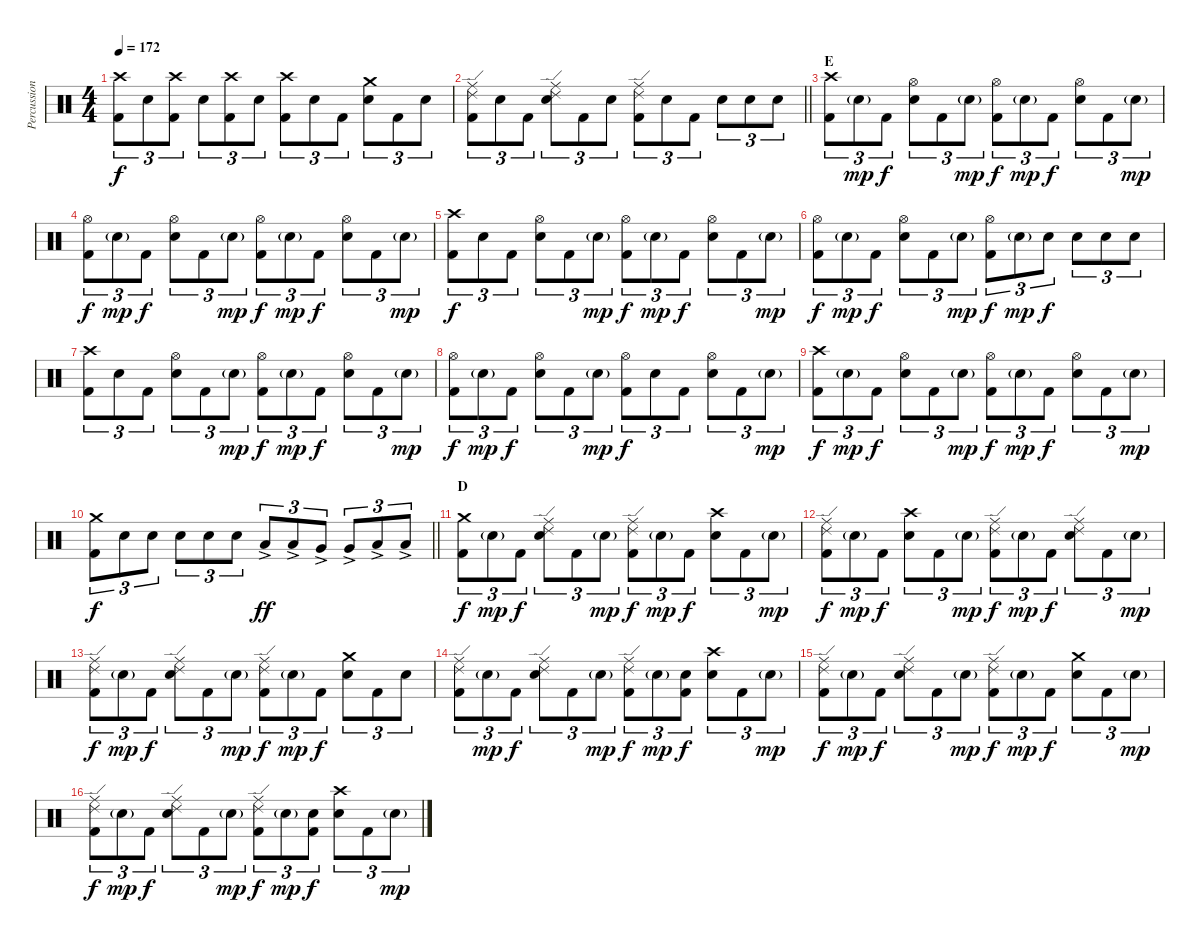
\track ("Percussion" "Percussion") {instrument percussion}
\staff {score}
\articulation defaults
\ts (4 4)
\tempo 172
\clef neutral
\ks c
("Crash high (hit)" "Kick (hit) 2").8{tu (3 2) dy f} "Electric Snare (hit)".8{tu (3 2)} ("Crash high (hit)" "Kick (hit) 2").8{tu (3 2)} "Electric Snare (hit)".8{tu (3 2)} ("Crash high (hit)" "Kick (hit) 2").8{tu (3 2)} "Electric Snare (hit)".8{tu (3 2)} ("Crash high (hit)" "Kick (hit) 2").8{tu (3 2)} "Electric Snare (hit)".8{tu (3 2)} "Kick (hit) 2".8{tu (3 2)} ("Crash medium (hit)" "Electric Snare (hit)").8{tu (3 2)} "Kick (hit) 2".8{tu (3 2)} "Electric Snare (hit)".8{tu (3 2)} |
\barLineRight lightlight
("Ride (edge) 2" "Ride (middle)" "Kick (hit) 2").8{tu (3 2)} "Electric Snare (hit)".8{tu (3 2)} "Kick (hit) 2".8{tu (3 2)} ("Ride (edge) 2" "Ride (middle)" "Electric Snare (hit)").8{tu (3 2)} "Kick (hit) 2".8{tu (3 2)} "Electric Snare (hit)".8{tu (3 2)} ("Ride (edge) 2" "Ride (middle)" "Kick (hit) 2").8{tu (3 2)} "Electric Snare (hit)".8{tu (3 2)} "Kick (hit) 2".8{tu (3 2)} "Electric Snare (hit)".8{tu (3 2)} "Electric Snare (hit)".8{tu (3 2)} "Electric Snare (hit)".8{tu (3 2)} |
\section ("" "E")
("Crash high (hit)" "Kick (hit) 2").8{tu (3 2)} "Electric Snare (hit)"{g}.8{tu (3 2) dy mp} "Kick (hit) 2".8{tu (3 2) dy f} ("Hi-Hat (open)" "Electric Snare (hit)").8{tu (3 2)} "Kick (hit) 2".8{tu (3 2)} "Electric Snare (hit)"{g}.8{tu (3 2) dy mp} ("Hi-Hat (open)" "Kick (hit) 2").8{tu (3 2) dy f} "Electric Snare (hit)"{g}.8{tu (3 2) dy mp} "Kick (hit) 2".8{tu (3 2) dy f} ("Hi-Hat (open)" "Electric Snare (hit)").8{tu (3 2)} "Kick (hit) 2".8{tu (3 2)} "Electric Snare (hit)"{g}.8{tu (3 2) dy mp} |
("Hi-Hat (open)" "Kick (hit) 2").8{tu (3 2) dy f} "Electric Snare (hit)"{g}.8{tu (3 2) dy mp} "Kick (hit) 2".8{tu (3 2) dy f} ("Hi-Hat (open)" "Electric Snare (hit)").8{tu (3 2)} "Kick (hit) 2".8{tu (3 2)} "Electric Snare (hit)"{g}.8{tu (3 2) dy mp} ("Hi-Hat (open)" "Kick (hit) 2").8{tu (3 2) dy f} "Electric Snare (hit)"{g}.8{tu (3 2) dy mp} "Kick (hit) 2".8{tu (3 2) dy f} ("Hi-Hat (open)" "Electric Snare (hit)").8{tu (3 2)} "Kick (hit) 2".8{tu (3 2)} "Electric Snare (hit)"{g}.8{tu (3 2) dy mp} |
("Crash high (hit)" "Kick (hit) 2").8{tu (3 2) dy f} "Electric Snare (hit)".8{tu (3 2)} "Kick (hit) 2".8{tu (3 2)} ("Hi-Hat (open)" "Electric Snare (hit)").8{tu (3 2)} "Kick (hit) 2".8{tu (3 2)} "Electric Snare (hit)"{g}.8{tu (3 2) dy mp} ("Hi-Hat (open)" "Kick (hit) 2").8{tu (3 2) dy f} "Electric Snare (hit)"{g}.8{tu (3 2) dy mp} "Kick (hit) 2".8{tu (3 2) dy f} ("Hi-Hat (open)" "Electric Snare (hit)").8{tu (3 2)} "Kick (hit) 2".8{tu (3 2)} "Electric Snare (hit)"{g}.8{tu (3 2) dy mp} |
("Hi-Hat (open)" "Kick (hit) 2").8{tu (3 2) dy f} "Electric Snare (hit)"{g}.8{tu (3 2) dy mp} "Kick (hit) 2".8{tu (3 2) dy f} ("Hi-Hat (open)" "Electric Snare (hit)").8{tu (3 2)} "Kick (hit) 2".8{tu (3 2)} "Electric Snare (hit)"{g}.8{tu (3 2) dy mp} ("Hi-Hat (open)" "Kick (hit) 2").8{tu (3 2) dy f} "Electric Snare (hit)"{g}.8{tu (3 2) dy mp} "Electric Snare (hit)".8{tu (3 2) dy f} "Electric Snare (hit)".8{tu (3 2)} "Electric Snare (hit)".8{tu (3 2)} "Electric Snare (hit)".8{tu (3 2)} |
("Crash high (hit)" "Kick (hit) 2").8{tu (3 2)} "Electric Snare (hit)".8{tu (3 2)} "Kick (hit) 2".8{tu (3 2)} ("Hi-Hat (open)" "Electric Snare (hit)").8{tu (3 2)} "Kick (hit) 2".8{tu (3 2)} "Electric Snare (hit)"{g}.8{tu (3 2) dy mp} ("Hi-Hat (open)" "Kick (hit) 2").8{tu (3 2) dy f} "Electric Snare (hit)"{g}.8{tu (3 2) dy mp} "Kick (hit) 2".8{tu (3 2) dy f} ("Hi-Hat (open)" "Electric Snare (hit)").8{tu (3 2)} "Kick (hit) 2".8{tu (3 2)} "Electric Snare (hit)"{g}.8{tu (3 2) dy mp} |
("Hi-Hat (open)" "Kick (hit) 2").8{tu (3 2) dy f} "Electric Snare (hit)"{g}.8{tu (3 2) dy mp} "Kick (hit) 2".8{tu (3 2) dy f} ("Hi-Hat (open)" "Electric Snare (hit)").8{tu (3 2)} "Kick (hit) 2".8{tu (3 2)} "Electric Snare (hit)"{g}.8{tu (3 2) dy mp} ("Hi-Hat (open)" "Kick (hit) 2").8{tu (3 2) dy f} "Electric Snare (hit)".8{tu (3 2)} "Kick (hit) 2".8{tu (3 2)} ("Hi-Hat (open)" "Electric Snare (hit)").8{tu (3 2)} "Kick (hit) 2".8{tu (3 2)} "Electric Snare (hit)"{g}.8{tu (3 2) dy mp} |
("Crash high (hit)" "Kick (hit) 2").8{tu (3 2) dy f} "Electric Snare (hit)"{g}.8{tu (3 2) dy mp} "Kick (hit) 2".8{tu (3 2) dy f} ("Hi-Hat (open)" "Electric Snare (hit)").8{tu (3 2)} "Kick (hit) 2".8{tu (3 2)} "Electric Snare (hit)"{g}.8{tu (3 2) dy mp} ("Hi-Hat (open)" "Kick (hit) 2").8{tu (3 2) dy f} "Electric Snare (hit)"{g}.8{tu (3 2) dy mp} "Kick (hit) 2".8{tu (3 2) dy f} ("Hi-Hat (open)" "Electric Snare (hit)").8{tu (3 2)} "Kick (hit) 2".8{tu (3 2)} "Electric Snare (hit)"{g}.8{tu (3 2) dy mp} |
\barLineRight lightlight
("Crash medium (hit)" "Kick (hit) 2").8{tu (3 2) dy f} "Electric Snare (hit)".8{tu (3 2)} "Electric Snare (hit)".8{tu (3 2)} "Electric Snare (hit)".8{tu (3 2)} "Electric Snare (hit)".8{tu (3 2)} "Electric Snare (hit)".8{tu (3 2)} "Low Tom (hit)"{ac}.8{tu (3 2) dy ff} "Low Tom (hit)"{ac}.8{tu (3 2)} "Very Low Tom (hit)"{ac}.8{tu (3 2)} "Very Low Tom (hit)"{ac}.8{tu (3 2)} "Low Floor Tom (hit)"{ac}.8{tu (3 2)} "Low Floor Tom (hit)"{ac}.8{tu (3 2)} |
\section ("" "D")
("Crash medium (hit)" "Kick (hit) 2").8{tu (3 2) dy f} "Electric Snare (hit)"{g}.8{tu (3 2) dy mp} "Kick (hit) 2".8{tu (3 2) dy f} ("Ride (edge) 2" "Ride (middle)" "Electric Snare (hit)").8{tu (3 2)} "Kick (hit) 2".8{tu (3 2)} "Electric Snare (hit)"{g}.8{tu (3 2) dy mp} ("Ride (edge) 2" "Ride (middle)" "Kick (hit) 2").8{tu (3 2) dy f} "Electric Snare (hit)"{g}.8{tu (3 2) dy mp} "Kick (hit) 2".8{tu (3 2) dy f} ("Crash high (hit)" "Electric Snare (hit)").8{tu (3 2)} "Kick (hit) 2".8{tu (3 2)} "Electric Snare (hit)"{g}.8{tu (3 2) dy mp} |
("Ride (edge) 2" "Ride (middle)" "Kick (hit) 2").8{tu (3 2) dy f} "Electric Snare (hit)"{g}.8{tu (3 2) dy mp} "Kick (hit) 2".8{tu (3 2) dy f} ("Crash high (hit)" "Electric Snare (hit)").8{tu (3 2)} "Kick (hit) 2".8{tu (3 2)} "Electric Snare (hit)"{g}.8{tu (3 2) dy mp} ("Ride (edge) 2" "Ride (middle)" "Kick (hit) 2").8{tu (3 2) dy f} "Electric Snare (hit)"{g}.8{tu (3 2) dy mp} "Kick (hit) 2".8{tu (3 2) dy f} ("Ride (edge) 2" "Ride (middle)" "Electric Snare (hit)").8{tu (3 2)} "Kick (hit) 2".8{tu (3 2)} "Electric Snare (hit)"{g}.8{tu (3 2) dy mp} |
("Ride (edge) 2" "Ride (middle)" "Kick (hit) 2").8{tu (3 2) dy f} "Electric Snare (hit)"{g}.8{tu (3 2) dy mp} "Kick (hit) 2".8{tu (3 2) dy f} ("Ride (edge) 2" "Ride (middle)" "Electric Snare (hit)").8{tu (3 2)} "Kick (hit) 2".8{tu (3 2)} "Electric Snare (hit)"{g}.8{tu (3 2) dy mp} ("Ride (edge) 2" "Ride (middle)" "Kick (hit) 2").8{tu (3 2) dy f} "Electric Snare (hit)"{g}.8{tu (3 2) dy mp} "Kick (hit) 2".8{tu (3 2) dy f} ("Crash medium (hit)" "Electric Snare (hit)").8{tu (3 2)} "Kick (hit) 2".8{tu (3 2)} "Electric Snare (hit)".8{tu (3 2)} |
("Ride (edge) 2" "Ride (middle)" "Kick (hit) 2").8{tu (3 2)} "Electric Snare (hit)"{g}.8{tu (3 2) dy mp} "Kick (hit) 2".8{tu (3 2) dy f} ("Ride (edge) 2" "Ride (middle)" "Electric Snare (hit)").8{tu (3 2)} "Kick (hit) 2".8{tu (3 2)} "Electric Snare (hit)"{g}.8{tu (3 2) dy mp} ("Ride (edge) 2" "Ride (middle)" "Kick (hit) 2").8{tu (3 2) dy f} "Electric Snare (hit)"{g}.8{tu (3 2) dy mp} ("Electric Snare (hit)" "Kick (hit) 2").8{tu (3 2) dy f} ("Crash high (hit)" "Electric Snare (hit)").8{tu (3 2)} "Kick (hit) 2".8{tu (3 2)} "Electric Snare (hit)"{g}.8{tu (3 2) dy mp} |
("Ride (edge) 2" "Ride (middle)" "Kick (hit) 2").8{tu (3 2) dy f} "Electric Snare (hit)"{g}.8{tu (3 2) dy mp} "Kick (hit) 2".8{tu (3 2) dy f} ("Ride (edge) 2" "Ride (middle)" "Electric Snare (hit)").8{tu (3 2)} "Kick (hit) 2".8{tu (3 2)} "Electric Snare (hit)"{g}.8{tu (3 2) dy mp} ("Ride (edge) 2" "Ride (middle)" "Kick (hit) 2").8{tu (3 2) dy f} "Electric Snare (hit)"{g}.8{tu (3 2) dy mp} "Kick (hit) 2".8{tu (3 2) dy f} ("Crash medium (hit)" "Electric Snare (hit)").8{tu (3 2)} "Kick (hit) 2".8{tu (3 2)} "Electric Snare (hit)"{g}.8{tu (3 2) dy mp} |
("Ride (edge) 2" "Ride (middle)" "Kick (hit) 2").8{tu (3 2) dy f} "Electric Snare (hit)"{g}.8{tu (3 2) dy mp} "Kick (hit) 2".8{tu (3 2) dy f} ("Ride (edge) 2" "Ride (middle)" "Electric Snare (hit)").8{tu (3 2)} "Kick (hit) 2".8{tu (3 2)} "Electric Snare (hit)"{g}.8{tu (3 2) dy mp} ("Ride (edge) 2" "Ride (middle)" "Kick (hit) 2").8{tu (3 2) dy f} "Electric Snare (hit)"{g}.8{tu (3 2) dy mp} ("Electric Snare (hit)" "Kick (hit) 2").8{tu (3 2) dy f} ("Crash high (hit)" "Electric Snare (hit)").8{tu (3 2)} "Kick (hit) 2".8{tu (3 2)} "Electric Snare (hit)"{g}.8{tu (3 2) dy mp}
